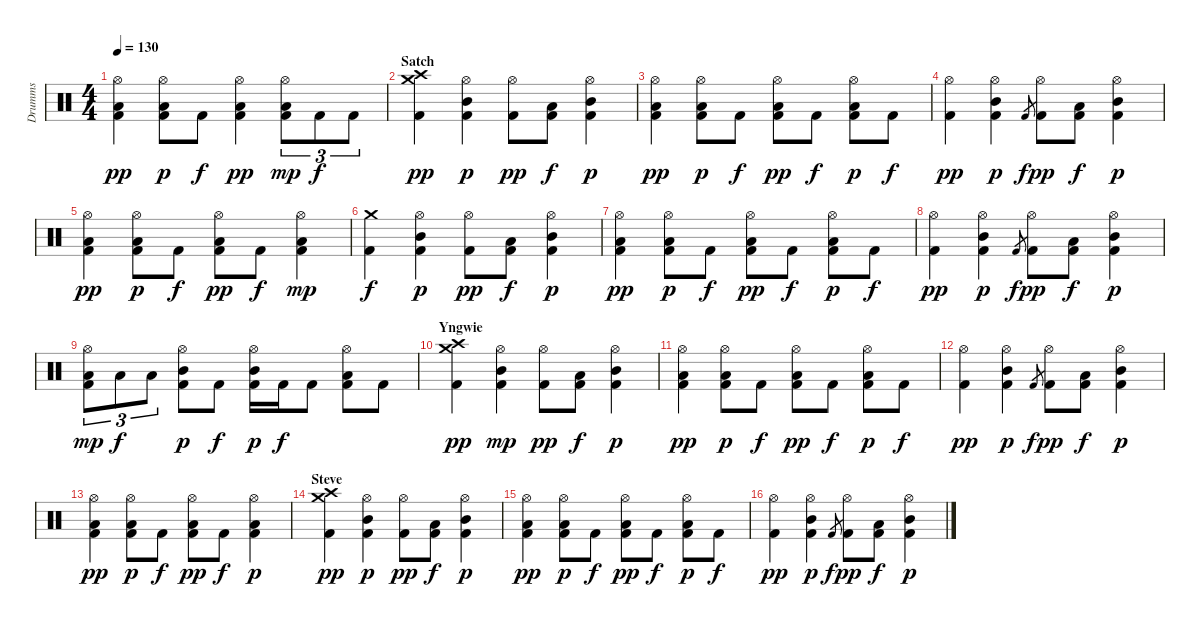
\track ("Drumms" "Drumms") {instrument percussion}
\staff {score}
\articulation defaults
\ts (4 4)
\tempo 130
\clef neutral
\ks c
("Hi-Hat (open)" "Kick (hit) 2" "Low Tom (hit)").4{dy pp} ("Hi-Hat (open)" "Kick (hit) 2" "Low Tom (hit)").8{dy p} "Kick (hit) 2".8{dy f} ("Hi-Hat (open)" "Kick (hit) 2" "Low Tom (hit)").4{dy pp} ("Hi-Hat (open)" "Kick (hit) 2" "Low Tom (hit)").8{tu (3 2) dy mp} "Kick (hit) 2".8{tu (3 2) dy f} "Kick (hit) 2".8{tu (3 2)} |
\section ("" "Satch")
("Crash medium (hit)" "Crash high (hit)" "Kick (hit) 2").4{dy pp} ("Hi-Hat (open)" "Kick (hit) 2" "Mid Tom (hit)").4{dy p} ("Hi-Hat (open)" "Kick (hit) 2").8{dy pp} ("Kick (hit) 2" "Low Tom (hit)").8{dy f} ("Hi-Hat (open)" "Kick (hit) 2" "Mid Tom (hit)").4{dy p} |
("Hi-Hat (open)" "Kick (hit) 2" "Low Tom (hit)").4{dy pp} ("Hi-Hat (open)" "Kick (hit) 2" "Low Tom (hit)").8{dy p} "Kick (hit) 2".8{dy f} ("Hi-Hat (open)" "Kick (hit) 2" "Low Tom (hit)").8{dy pp} "Kick (hit) 2".8{dy f} ("Hi-Hat (open)" "Kick (hit) 2" "Low Tom (hit)").8{dy p} "Kick (hit) 2".8{dy f} |
("Hi-Hat (open)" "Kick (hit) 2").4{dy pp} ("Hi-Hat (open)" "Kick (hit) 2" "Mid Tom (hit)").4{dy p} "Kick (hit) 2".8{gr dy f} ("Hi-Hat (open)" "Kick (hit) 2").8{dy pp} ("Kick (hit) 2" "Low Tom (hit)").8{dy f} ("Hi-Hat (open)" "Kick (hit) 2" "Mid Tom (hit)").4{dy p} |
("Hi-Hat (open)" "Kick (hit) 2" "Low Tom (hit)").4{dy pp} ("Hi-Hat (open)" "Kick (hit) 2" "Low Tom (hit)").8{dy p} "Kick (hit) 2".8{dy f} ("Hi-Hat (open)" "Kick (hit) 2" "Low Tom (hit)").8{dy pp} "Kick (hit) 2".8{dy f} ("Hi-Hat (open)" "Kick (hit) 2" "Low Tom (hit)").4{dy mp} |
("Crash medium (hit)" "Kick (hit) 2").4{dy f} ("Hi-Hat (open)" "Kick (hit) 2" "Mid Tom (hit)").4{dy p} ("Hi-Hat (open)" "Kick (hit) 2").8{dy pp} ("Kick (hit) 2" "Low Tom (hit)").8{dy f} ("Hi-Hat (open)" "Kick (hit) 2" "Mid Tom (hit)").4{dy p} |
("Hi-Hat (open)" "Kick (hit) 2" "Low Tom (hit)").4{dy pp} ("Hi-Hat (open)" "Kick (hit) 2" "Low Tom (hit)").8{dy p} "Kick (hit) 2".8{dy f} ("Hi-Hat (open)" "Kick (hit) 2" "Low Tom (hit)").8{dy pp} "Kick (hit) 2".8{dy f} ("Hi-Hat (open)" "Kick (hit) 2" "Low Tom (hit)").8{dy p} "Kick (hit) 2".8{dy f} |
("Hi-Hat (open)" "Kick (hit) 2").4{dy pp} ("Hi-Hat (open)" "Kick (hit) 2" "Mid Tom (hit)").4{dy p} "Kick (hit) 2".8{gr dy f} ("Hi-Hat (open)" "Kick (hit) 2").8{dy pp} ("Kick (hit) 2" "Low Tom (hit)").8{dy f} ("Hi-Hat (open)" "Kick (hit) 2" "Mid Tom (hit)").4{dy p} |
("Hi-Hat (open)" "Kick (hit) 2" "Low Tom (hit)").8{tu (3 2) dy mp} "Low Tom (hit)".8{tu (3 2) dy f} "Low Tom (hit)".8{tu (3 2)} ("Hi-Hat (open)" "Kick (hit) 2" "Mid Tom (hit)").8{dy p} "Kick (hit) 2".8{dy f} ("Hi-Hat (open)" "Kick (hit) 2" "Mid Tom (hit)").16{dy p} "Kick (hit) 2".16{dy f} "Kick (hit) 2".8 ("Hi-Hat (open)" "Kick (hit) 2" "Low Tom (hit)").8 "Kick (hit) 2".8 |
\section ("" "Yngwie")
("Crash medium (hit)" "Crash high (hit)" "Kick (hit) 2").4{dy pp} ("Hi-Hat (open)" "Kick (hit) 2" "Mid Tom (hit)").4{dy mp} ("Hi-Hat (open)" "Kick (hit) 2").8{dy pp} ("Kick (hit) 2" "Low Tom (hit)").8{dy f} ("Hi-Hat (open)" "Kick (hit) 2" "Mid Tom (hit)").4{dy p} |
("Hi-Hat (open)" "Kick (hit) 2" "Low Tom (hit)").4{dy pp} ("Hi-Hat (open)" "Kick (hit) 2" "Low Tom (hit)").8{dy p} "Kick (hit) 2".8{dy f} ("Hi-Hat (open)" "Kick (hit) 2" "Low Tom (hit)").8{dy pp} "Kick (hit) 2".8{dy f} ("Hi-Hat (open)" "Kick (hit) 2" "Low Tom (hit)").8{dy p} "Kick (hit) 2".8{dy f} |
("Hi-Hat (open)" "Kick (hit) 2").4{dy pp} ("Hi-Hat (open)" "Kick (hit) 2" "Mid Tom (hit)").4{dy p} "Kick (hit) 2".8{gr dy f} ("Hi-Hat (open)" "Kick (hit) 2").8{dy pp} ("Kick (hit) 2" "Low Tom (hit)").8{dy f} ("Hi-Hat (open)" "Kick (hit) 2" "Mid Tom (hit)").4{dy p} |
("Hi-Hat (open)" "Kick (hit) 2" "Low Tom (hit)").4{dy pp} ("Hi-Hat (open)" "Kick (hit) 2" "Low Tom (hit)").8{dy p} "Kick (hit) 2".8{dy f} ("Hi-Hat (open)" "Kick (hit) 2" "Low Tom (hit)").8{dy pp} "Kick (hit) 2".8{dy f} ("Hi-Hat (open)" "Kick (hit) 2" "Low Tom (hit)").4{dy p} |
\section ("" "Steve")
("Crash medium (hit)" "Crash high (hit)" "Kick (hit) 2").4{dy pp} ("Hi-Hat (open)" "Kick (hit) 2" "Mid Tom (hit)").4{dy p} ("Hi-Hat (open)" "Kick (hit) 2").8{dy pp} ("Kick (hit) 2" "Low Tom (hit)").8{dy f} ("Hi-Hat (open)" "Kick (hit) 2" "Mid Tom (hit)").4{dy p} |
("Hi-Hat (open)" "Kick (hit) 2" "Low Tom (hit)").4{dy pp} ("Hi-Hat (open)" "Kick (hit) 2" "Low Tom (hit)").8{dy p} "Kick (hit) 2".8{dy f} ("Hi-Hat (open)" "Kick (hit) 2" "Low Tom (hit)").8{dy pp} "Kick (hit) 2".8{dy f} ("Hi-Hat (open)" "Kick (hit) 2" "Low Tom (hit)").8{dy p} "Kick (hit) 2".8{dy f} |
("Hi-Hat (open)" "Kick (hit) 2").4{dy pp} ("Hi-Hat (open)" "Kick (hit) 2" "Mid Tom (hit)").4{dy p} "Kick (hit) 2".8{gr dy f} ("Hi-Hat (open)" "Kick (hit) 2").8{dy pp} ("Kick (hit) 2" "Low Tom (hit)").8{dy f} ("Hi-Hat (open)" "Kick (hit) 2" "Mid Tom (hit)").4{dy p}
